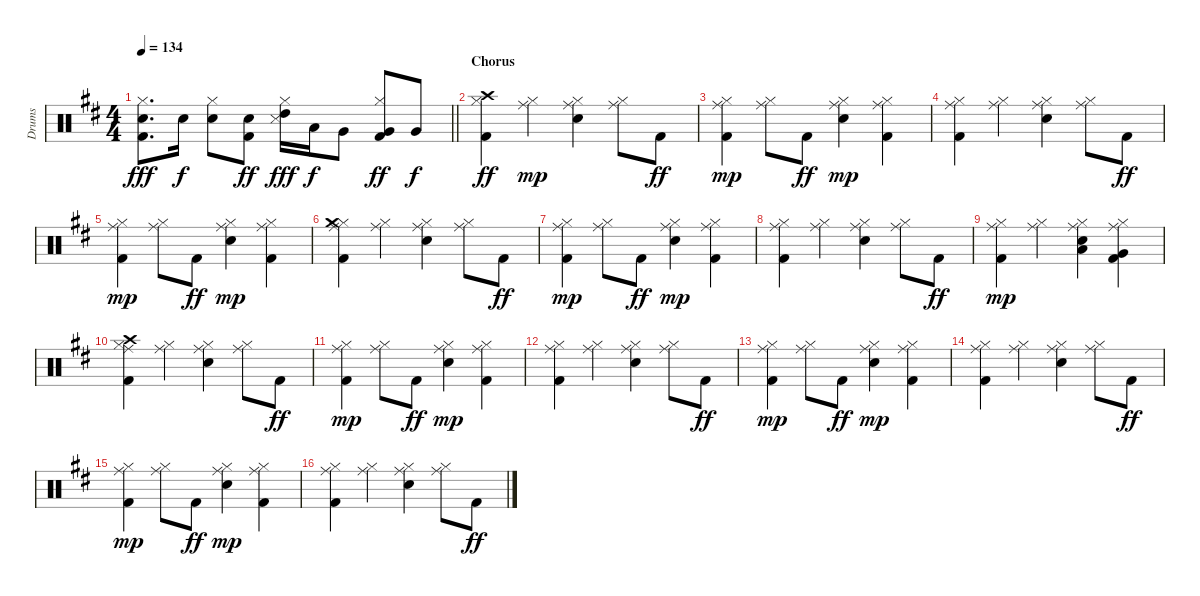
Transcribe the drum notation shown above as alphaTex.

\track ("Drums" "Drums") {instrument percussion}
\staff {score}
\articulation defaults
\ts (4 4)
\tempo 134
\clef neutral
\barLineRight lightlight
\ks d
("Kick (hit) 2" "Snare (hit) 2" "Hi-Hat (closed)").8{d dy fff} "Snare (hit) 2".16{dy f} ("Snare (hit) 2" "Hi-Hat (closed)").8 ("Kick (hit) 2" "Snare (hit) 2").8{dy ff} ("Snare (side stick) 3" "Hi-Hat (closed)" "High Tom (hit)").16{dy fff} "Low Tom (hit)".16{dy f} "Very Low Tom (hit)".8 ("Kick (hit) 2" "Hi-Hat (closed)" "Very Low Tom (hit)").8{dy ff} "Very Low Tom (hit)".8{dy f} |
\section ("" "Chorus")
("Kick (hit) 2" "Hi-Hat (closed)" "Crash high (hit)").4{dy ff} ("Hi-Hat (closed)" "Ride (middle)").4{dy mp} ("Snare (hit) 2" "Hi-Hat (closed)" "Ride (middle)").4 ("Hi-Hat (closed)" "Ride (middle)").8 "Kick (hit) 2".8{dy ff} |
("Kick (hit) 2" "Hi-Hat (closed)" "Ride (middle)").4{dy mp} ("Hi-Hat (closed)" "Ride (middle)").8 "Kick (hit) 2".8{dy ff} ("Snare (hit) 2" "Hi-Hat (closed)" "Ride (middle)").4{dy mp} ("Kick (hit) 2" "Hi-Hat (closed)" "Ride (middle)").4 |
("Kick (hit) 2" "Hi-Hat (closed)" "Ride (middle)").4 ("Hi-Hat (closed)" "Ride (middle)").4 ("Snare (hit) 2" "Hi-Hat (closed)" "Ride (middle)").4 ("Hi-Hat (closed)" "Ride (middle)").8 "Kick (hit) 2".8{dy ff} |
("Kick (hit) 2" "Hi-Hat (closed)" "Ride (middle)").4{dy mp} ("Hi-Hat (closed)" "Ride (middle)").8 "Kick (hit) 2".8{dy ff} ("Snare (hit) 2" "Hi-Hat (closed)" "Ride (middle)").4{dy mp} ("Kick (hit) 2" "Hi-Hat (closed)" "Ride (middle)").4 |
("Kick (hit) 2" "Hi-Hat (closed)" "Crash medium (hit)" "Ride (middle)").4 ("Hi-Hat (closed)" "Ride (middle)").4 ("Snare (hit) 2" "Hi-Hat (closed)" "Ride (middle)").4 ("Hi-Hat (closed)" "Ride (middle)").8 "Kick (hit) 2".8{dy ff} |
("Kick (hit) 2" "Hi-Hat (closed)" "Ride (middle)").4{dy mp} ("Hi-Hat (closed)" "Ride (middle)").8 "Kick (hit) 2".8{dy ff} ("Snare (hit) 2" "Hi-Hat (closed)" "Ride (middle)").4{dy mp} ("Kick (hit) 2" "Hi-Hat (closed)" "Ride (middle)").4 |
("Kick (hit) 2" "Hi-Hat (closed)" "Ride (middle)").4 ("Hi-Hat (closed)" "Ride (middle)").4 ("Snare (hit) 2" "Hi-Hat (closed)" "Ride (middle)").4 ("Hi-Hat (closed)" "Ride (middle)").8 "Kick (hit) 2".8{dy ff} |
("Kick (hit) 2" "Hi-Hat (closed)" "Ride (middle)").4{dy mp} ("Hi-Hat (closed)" "Ride (middle)").4 ("Snare (hit) 2" "Hi-Hat (closed)" "Low Tom (hit)" "Ride (middle)").4 ("Kick (hit) 2" "Hi-Hat (closed)" "Very Low Tom (hit)" "Ride (middle)").4 |
("Kick (hit) 2" "Hi-Hat (closed)" "Crash high (hit)" "Ride (middle)").4 ("Hi-Hat (closed)" "Ride (middle)").4 ("Snare (hit) 2" "Hi-Hat (closed)" "Ride (middle)").4 ("Hi-Hat (closed)" "Ride (middle)").8 "Kick (hit) 2".8{dy ff} |
("Kick (hit) 2" "Hi-Hat (closed)" "Ride (middle)").4{dy mp} ("Hi-Hat (closed)" "Ride (middle)").8 "Kick (hit) 2".8{dy ff} ("Snare (hit) 2" "Hi-Hat (closed)" "Ride (middle)").4{dy mp} ("Kick (hit) 2" "Hi-Hat (closed)" "Ride (middle)").4 |
("Kick (hit) 2" "Hi-Hat (closed)" "Ride (middle)").4 ("Hi-Hat (closed)" "Ride (middle)").4 ("Snare (hit) 2" "Hi-Hat (closed)" "Ride (middle)").4 ("Hi-Hat (closed)" "Ride (middle)").8 "Kick (hit) 2".8{dy ff} |
("Kick (hit) 2" "Hi-Hat (closed)" "Ride (middle)").4{dy mp} ("Hi-Hat (closed)" "Ride (middle)").8 "Kick (hit) 2".8{dy ff} ("Snare (hit) 2" "Hi-Hat (closed)" "Ride (middle)").4{dy mp} ("Kick (hit) 2" "Hi-Hat (closed)" "Ride (middle)").4 |
("Kick (hit) 2" "Hi-Hat (closed)" "Ride (middle)").4 ("Hi-Hat (closed)" "Ride (middle)").4 ("Snare (hit) 2" "Hi-Hat (closed)" "Ride (middle)").4 ("Hi-Hat (closed)" "Ride (middle)").8 "Kick (hit) 2".8{dy ff} |
("Kick (hit) 2" "Hi-Hat (closed)" "Ride (middle)").4{dy mp} ("Hi-Hat (closed)" "Ride (middle)").8 "Kick (hit) 2".8{dy ff} ("Snare (hit) 2" "Hi-Hat (closed)" "Ride (middle)").4{dy mp} ("Kick (hit) 2" "Hi-Hat (closed)" "Ride (middle)").4 |
("Kick (hit) 2" "Hi-Hat (closed)" "Ride (middle)").4 ("Hi-Hat (closed)" "Ride (middle)").4 ("Snare (hit) 2" "Hi-Hat (closed)" "Ride (middle)").4 ("Hi-Hat (closed)" "Ride (middle)").8 "Kick (hit) 2".8{dy ff}
